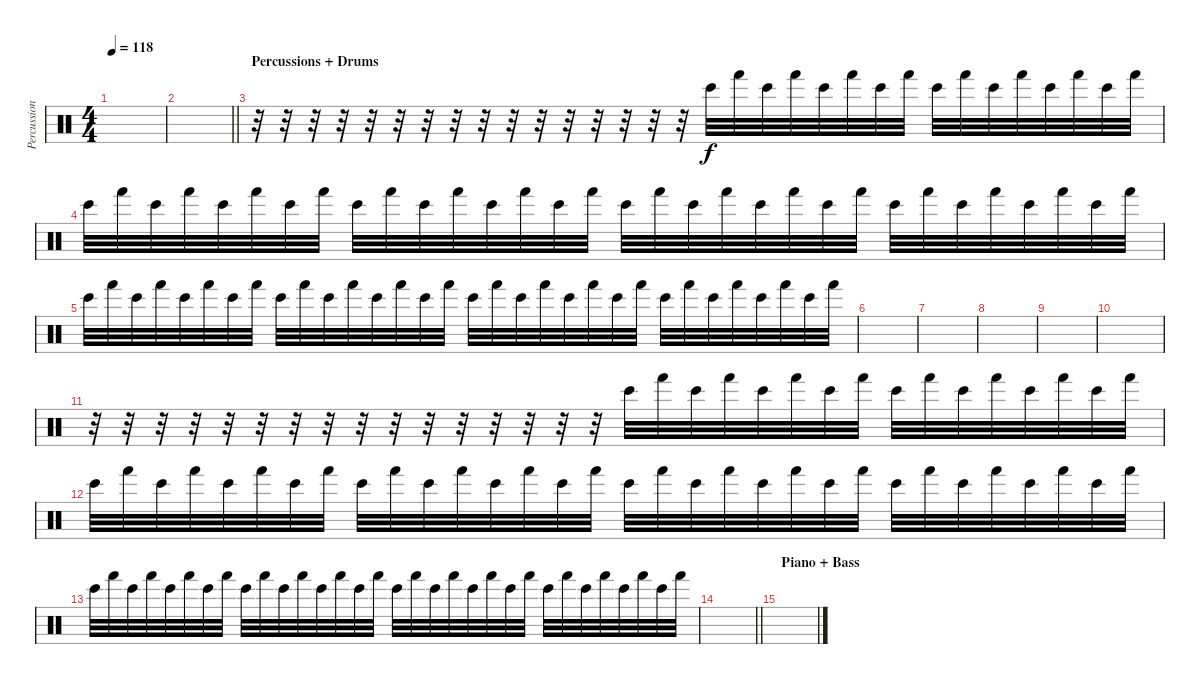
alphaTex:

\track ("Percussion (MIDI!!!!!)" "Percussion") {instrument percussion}
\staff {score}
\articulation defaults
\ts (4 4)
\tempo 118
\clef neutral
\ks c
|
\barLineRight lightlight
|
\section ("" "Percussions + Drums")
r.32 r.32 r.32 r.32 r.32 r.32 r.32 r.32 r.32 r.32 r.32 r.32 r.32 r.32 r.32 r.32 "Bongo High (hit)".32 "Hand (hit)".32 "Bongo High (hit)".32 "Hand (hit)".32 "Bongo High (hit)".32 "Hand (hit)".32 "Bongo High (hit)".32 "Hand (hit)".32 "Bongo High (hit)".32 "Hand (hit)".32 "Bongo High (hit)".32 "Hand (hit)".32 "Bongo High (hit)".32 "Hand (hit)".32 "Bongo High (hit)".32 "Hand (hit)".32 |
"Bongo High (hit)".32 "Hand (hit)".32 "Bongo High (hit)".32 "Hand (hit)".32 "Bongo High (hit)".32 "Hand (hit)".32 "Bongo High (hit)".32 "Hand (hit)".32 "Bongo High (hit)".32 "Hand (hit)".32 "Bongo High (hit)".32 "Hand (hit)".32 "Bongo High (hit)".32 "Hand (hit)".32 "Bongo High (hit)".32 "Hand (hit)".32 "Bongo High (hit)".32 "Hand (hit)".32 "Bongo High (hit)".32 "Hand (hit)".32 "Bongo High (hit)".32 "Hand (hit)".32 "Bongo High (hit)".32 "Hand (hit)".32 "Bongo High (hit)".32 "Hand (hit)".32 "Bongo High (hit)".32 "Hand (hit)".32 "Bongo High (hit)".32 "Hand (hit)".32 "Bongo High (hit)".32 "Hand (hit)".32 |
"Bongo High (hit)".32 "Hand (hit)".32 "Bongo High (hit)".32 "Hand (hit)".32 "Bongo High (hit)".32 "Hand (hit)".32 "Bongo High (hit)".32 "Hand (hit)".32 "Bongo High (hit)".32 "Hand (hit)".32 "Bongo High (hit)".32 "Hand (hit)".32 "Bongo High (hit)".32 "Hand (hit)".32 "Bongo High (hit)".32 "Hand (hit)".32 "Bongo High (hit)".32 "Hand (hit)".32 "Bongo High (hit)".32 "Hand (hit)".32 "Bongo High (hit)".32 "Hand (hit)".32 "Bongo High (hit)".32 "Hand (hit)".32 "Bongo High (hit)".32 "Hand (hit)".32 "Bongo High (hit)".32 "Hand (hit)".32 "Bongo High (hit)".32 "Hand (hit)".32 "Bongo High (hit)".32 "Hand (hit)".32 |
|
|
|
|
|
r.32 r.32 r.32 r.32 r.32 r.32 r.32 r.32 r.32 r.32 r.32 r.32 r.32 r.32 r.32 r.32 "Bongo High (hit)".32 "Hand (hit)".32 "Bongo High (hit)".32 "Hand (hit)".32 "Bongo High (hit)".32 "Hand (hit)".32 "Bongo High (hit)".32 "Hand (hit)".32 "Bongo High (hit)".32 "Hand (hit)".32 "Bongo High (hit)".32 "Hand (hit)".32 "Bongo High (hit)".32 "Hand (hit)".32 "Bongo High (hit)".32 "Hand (hit)".32 |
"Bongo High (hit)".32 "Hand (hit)".32 "Bongo High (hit)".32 "Hand (hit)".32 "Bongo High (hit)".32 "Hand (hit)".32 "Bongo High (hit)".32 "Hand (hit)".32 "Bongo High (hit)".32 "Hand (hit)".32 "Bongo High (hit)".32 "Hand (hit)".32 "Bongo High (hit)".32 "Hand (hit)".32 "Bongo High (hit)".32 "Hand (hit)".32 "Bongo High (hit)".32 "Hand (hit)".32 "Bongo High (hit)".32 "Hand (hit)".32 "Bongo High (hit)".32 "Hand (hit)".32 "Bongo High (hit)".32 "Hand (hit)".32 "Bongo High (hit)".32 "Hand (hit)".32 "Bongo High (hit)".32 "Hand (hit)".32 "Bongo High (hit)".32 "Hand (hit)".32 "Bongo High (hit)".32 "Hand (hit)".32 |
"Bongo High (hit)".32 "Hand (hit)".32 "Bongo High (hit)".32 "Hand (hit)".32 "Bongo High (hit)".32 "Hand (hit)".32 "Bongo High (hit)".32 "Hand (hit)".32 "Bongo High (hit)".32 "Hand (hit)".32 "Bongo High (hit)".32 "Hand (hit)".32 "Bongo High (hit)".32 "Hand (hit)".32 "Bongo High (hit)".32 "Hand (hit)".32 "Bongo High (hit)".32 "Hand (hit)".32 "Bongo High (hit)".32 "Hand (hit)".32 "Bongo High (hit)".32 "Hand (hit)".32 "Bongo High (hit)".32 "Hand (hit)".32 "Bongo High (hit)".32 "Hand (hit)".32 "Bongo High (hit)".32 "Hand (hit)".32 "Bongo High (hit)".32 "Hand (hit)".32 "Bongo High (hit)".32 "Hand (hit)".32 |
\barLineRight lightlight
|
\section ("" "Piano + Bass")
